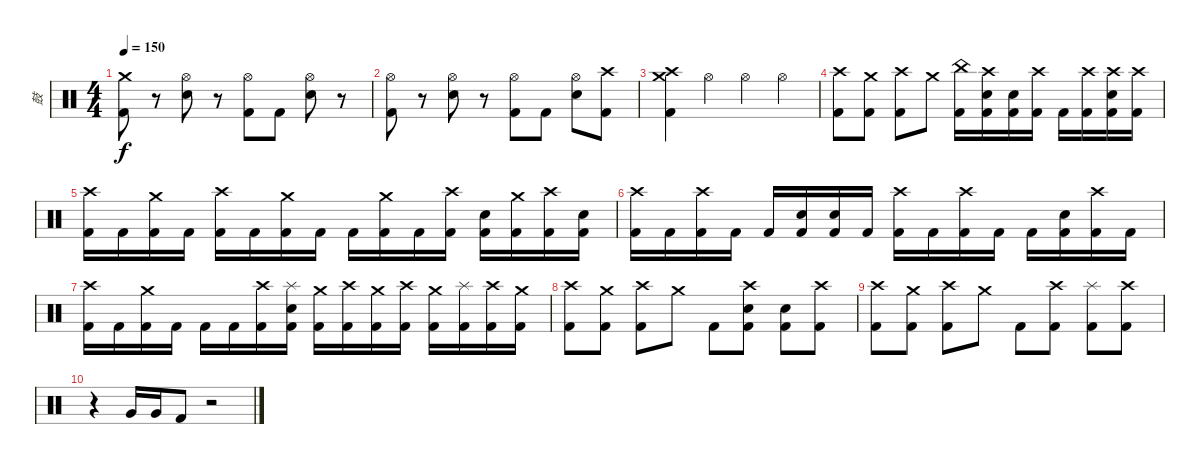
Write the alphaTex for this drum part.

\track ("鼓" "鼓") {instrument percussion}
\staff {score}
\articulation defaults
\ts (4 4)
\tempo 150
\clef neutral
\ks c
("Crash medium (hit)" "Kick (hit) 2").8{dy f} r.8 ("Hi-Hat (open)" "Electric Snare (hit)").8 r.8 ("Hi-Hat (open)" "Kick (hit) 2").8 "Kick (hit) 2".8 ("Hi-Hat (open)" "Electric Snare (hit)").8 r.8 |
("Hi-Hat (open)" "Kick (hit) 2").8 r.8 ("Hi-Hat (open)" "Electric Snare (hit)").8 r.8 ("Hi-Hat (open)" "Kick (hit) 2").8 "Kick (hit) 2".8 ("Hi-Hat (open)" "Electric Snare (hit)").8 ("Crash high (hit)" "Kick (hit) 2").8 |
("Crash high (hit)" "Crash medium (hit)" "Kick (hit) 2").4 "Hi-Hat (open)".4 "Hi-Hat (open)".4 "Hi-Hat (open)".4 |
("Crash high (hit)" "Kick (hit) 2").8 ("Crash medium (hit)" "Kick (hit) 2").8 ("Crash high (hit)" "Kick (hit) 2").8 "Crash medium (hit)".8 ("China (hit)" "Kick (hit) 2").16 ("Crash high (hit)" "Electric Snare (hit)" "Kick (hit) 2").16 ("Electric Snare (hit)" "Kick (hit) 2").16 ("Crash high (hit)" "Kick (hit) 2").16 "Kick (hit) 2".16 ("Crash high (hit)" "Kick (hit) 2").16 ("Crash high (hit)" "Electric Snare (hit)" "Kick (hit) 2").16 ("Crash high (hit)" "Kick (hit) 2").16 |
("Crash high (hit)" "Kick (hit) 2").16 "Kick (hit) 2".16 ("Crash medium (hit)" "Kick (hit) 2").16 "Kick (hit) 2".16 ("Crash high (hit)" "Kick (hit) 2").16 "Kick (hit) 2".16 ("Crash medium (hit)" "Kick (hit) 2").16 "Kick (hit) 2".16 "Kick (hit) 2".16 ("Crash medium (hit)" "Kick (hit) 2").16 "Kick (hit) 2".16 ("Crash high (hit)" "Kick (hit) 2").16 ("Electric Snare (hit)" "Kick (hit) 2").16 ("Crash medium (hit)" "Kick (hit) 2").16 ("Crash high (hit)" "Kick (hit) 2").16 ("Electric Snare (hit)" "Kick (hit) 2").16 |
("Crash high (hit)" "Kick (hit) 2").16 "Kick (hit) 2".16 ("Crash high (hit)" "Kick (hit) 2").16 "Kick (hit) 2".16 "Kick (hit) 2".16 ("Electric Snare (hit)" "Kick (hit) 2").16 ("Electric Snare (hit)" "Kick (hit) 2").16 "Kick (hit) 2".16 ("Crash high (hit)" "Kick (hit) 2").16 "Kick (hit) 2".16 ("Crash high (hit)" "Kick (hit) 2").16 "Kick (hit) 2".16 "Kick (hit) 2".16 ("Electric Snare (hit)" "Kick (hit) 2").16 ("Crash high (hit)" "Kick (hit) 2").16 "Kick (hit) 2".16 |
("Crash high (hit)" "Kick (hit) 2").16 "Kick (hit) 2".16 ("Crash medium (hit)" "Kick (hit) 2").16 "Kick (hit) 2".16 "Kick (hit) 2".16 "Kick (hit) 2".16 ("Crash high (hit)" "Kick (hit) 2").16 ("Splash (hit)" "Electric Snare (hit)" "Kick (hit) 2").16 ("Crash medium (hit)" "Kick (hit) 2").16 ("Crash high (hit)" "Kick (hit) 2").16 ("Crash medium (hit)" "Kick (hit) 2").16 ("Crash high (hit)" "Kick (hit) 2").16 ("Crash medium (hit)" "Kick (hit) 2").16 ("Splash (hit)" "Kick (hit) 2").16 ("Crash high (hit)" "Kick (hit) 2").16 ("Crash medium (hit)" "Kick (hit) 2").16 |
("Crash high (hit)" "Kick (hit) 2").8 ("Crash medium (hit)" "Kick (hit) 2").8 ("Crash high (hit)" "Kick (hit) 2").8 "Crash medium (hit)".8 "Kick (hit) 2".8 ("Crash high (hit)" "Electric Snare (hit)" "Kick (hit) 2").8 ("Electric Snare (hit)" "Kick (hit) 2").8 ("Crash high (hit)" "Kick (hit) 2").8 |
("Crash high (hit)" "Kick (hit) 2").8 ("Crash medium (hit)" "Kick (hit) 2").8 ("Crash high (hit)" "Kick (hit) 2").8 "Crash medium (hit)".8 "Kick (hit) 2".8 ("Crash high (hit)" "Kick (hit) 2").8 ("Splash (hit)" "Kick (hit) 2").8 ("Crash high (hit)" "Kick (hit) 2").8 |
r.4 "Very Low Tom (hit)".16 "Very Low Tom (hit)".16 "Kick (hit) 2".8 r.2
